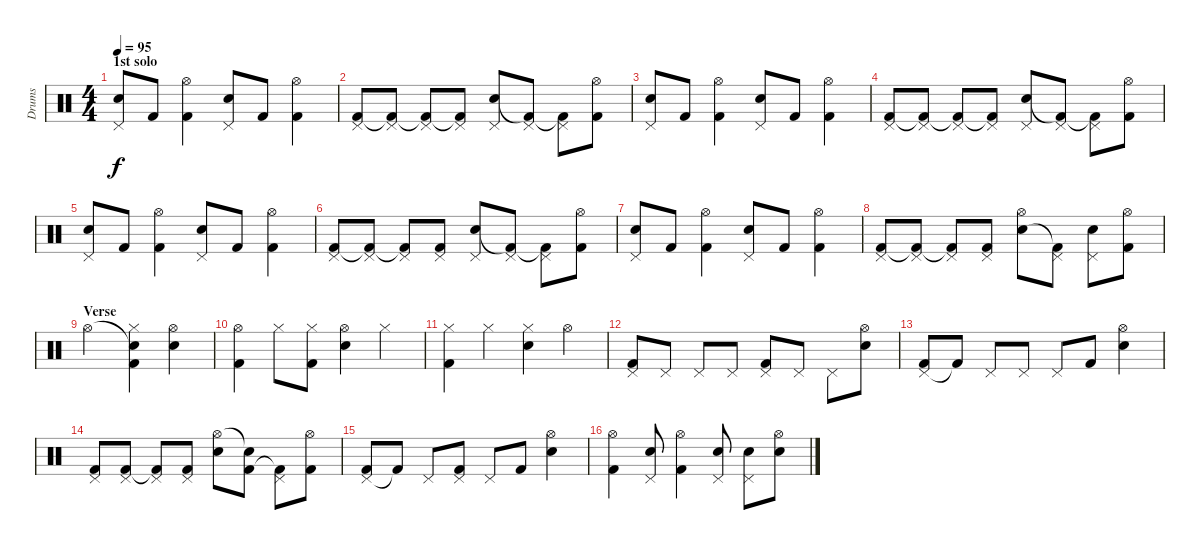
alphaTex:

\track ("Drums" "Drums") {instrument percussion}
\staff {score}
\articulation defaults
\ts (4 4)
\section ("" "1st solo")
\tempo 95
\clef neutral
\ks c
("Pedal Hi-Hat (hit)" "Snare (hit) 2").8{dy f} "Kick (hit) 2".8 ("Hi-Hat (open)" "Kick (hit) 2").4 ("Pedal Hi-Hat (hit)" "Snare (hit) 2").8 "Kick (hit) 2".8 ("Hi-Hat (open)" "Kick (hit) 2").4 |
("Pedal Hi-Hat (hit)" "Kick (hit) 2").8 ("Pedal Hi-Hat (hit)" "Kick (hit) 2"{t}).8 ("Pedal Hi-Hat (hit)" "Kick (hit) 2"{t}).8 ("Pedal Hi-Hat (hit)" "Kick (hit) 2"{t}).8 ("Pedal Hi-Hat (hit)" "Snare (hit) 2").8 ("Pedal Hi-Hat (hit)" "Kick (hit) 2"{t}).8 ("Pedal Hi-Hat (hit)" "Kick (hit) 2"{t}).8 ("Hi-Hat (open)" "Kick (hit) 2").8 |
("Pedal Hi-Hat (hit)" "Snare (hit) 2").8 "Kick (hit) 2".8 ("Hi-Hat (open)" "Kick (hit) 2").4 ("Pedal Hi-Hat (hit)" "Snare (hit) 2").8 "Kick (hit) 2".8 ("Hi-Hat (open)" "Kick (hit) 2").4 |
("Pedal Hi-Hat (hit)" "Kick (hit) 2").8 ("Pedal Hi-Hat (hit)" "Kick (hit) 2"{t}).8 ("Pedal Hi-Hat (hit)" "Kick (hit) 2"{t}).8 ("Pedal Hi-Hat (hit)" "Kick (hit) 2"{t}).8 ("Pedal Hi-Hat (hit)" "Snare (hit) 2").8 ("Pedal Hi-Hat (hit)" "Kick (hit) 2"{t}).8 ("Pedal Hi-Hat (hit)" "Kick (hit) 2"{t}).8 ("Hi-Hat (open)" "Kick (hit) 2").8 |
("Pedal Hi-Hat (hit)" "Snare (hit) 2").8 "Kick (hit) 2".8 ("Hi-Hat (open)" "Kick (hit) 2").4 ("Pedal Hi-Hat (hit)" "Snare (hit) 2").8 "Kick (hit) 2".8 ("Hi-Hat (open)" "Kick (hit) 2").4 |
("Pedal Hi-Hat (hit)" "Kick (hit) 2").8 ("Pedal Hi-Hat (hit)" "Kick (hit) 2"{t}).8 ("Pedal Hi-Hat (hit)" "Kick (hit) 2"{t}).8 ("Pedal Hi-Hat (hit)" "Kick (hit) 2").8 ("Pedal Hi-Hat (hit)" "Snare (hit) 2").8 ("Pedal Hi-Hat (hit)" "Kick (hit) 2"{t}).8 ("Pedal Hi-Hat (hit)" "Kick (hit) 2"{t}).8 ("Hi-Hat (open)" "Kick (hit) 2").8 |
("Pedal Hi-Hat (hit)" "Snare (hit) 2").8 "Kick (hit) 2".8 ("Hi-Hat (open)" "Kick (hit) 2").4 ("Pedal Hi-Hat (hit)" "Snare (hit) 2").8 "Kick (hit) 2".8 ("Hi-Hat (open)" "Kick (hit) 2").4 |
("Pedal Hi-Hat (hit)" "Kick (hit) 2").8 ("Pedal Hi-Hat (hit)" "Kick (hit) 2"{t}).8 ("Pedal Hi-Hat (hit)" "Kick (hit) 2"{t}).8 ("Pedal Hi-Hat (hit)" "Kick (hit) 2").8 ("Hi-Hat (open)" "Snare (hit) 2").8 ("Pedal Hi-Hat (hit)" "Kick (hit) 2"{t}).8 ("Pedal Hi-Hat (hit)" "Snare (hit) 2").8 ("Hi-Hat (open)" "Kick (hit) 2").8 |
\section ("" "Verse")
"Hi-Hat (open)".2 ("Snare (hit)"{t} "Hi-Hat (closed)" "Kick (hit) 2").4 ("Hi-Hat (open)" "Snare (hit) 2").4 |
("Hi-Hat (open)" "Kick (hit) 2").4 "Hi-Hat (closed)".8 ("Hi-Hat (closed)" "Kick (hit) 2").8 ("Hi-Hat (open)" "Snare (hit) 2").4 "Hi-Hat (closed)".4 |
("Hi-Hat (closed)" "Kick (hit) 2").4 "Hi-Hat (closed)".4 ("Hi-Hat (closed)" "Snare (hit) 2").4 "Hi-Hat (open)".4 |
("Pedal Hi-Hat (hit)" "Kick (hit) 2").8 "Pedal Hi-Hat (hit)".8 "Pedal Hi-Hat (hit)".8 "Pedal Hi-Hat (hit)".8 ("Pedal Hi-Hat (hit)" "Kick (hit) 2").8 "Pedal Hi-Hat (hit)".8 "Pedal Hi-Hat (hit)".8 ("Hi-Hat (open)" "Snare (hit) 2").8 |
("Pedal Hi-Hat (hit)" "Kick (hit) 2").8 "Kick (hit) 2"{t}.8 "Pedal Hi-Hat (hit)".8 "Pedal Hi-Hat (hit)".8 "Pedal Hi-Hat (hit)".8 "Kick (hit) 2".8 ("Hi-Hat (open)" "Snare (hit) 2").4 |
("Pedal Hi-Hat (hit)" "Kick (hit) 2").8 ("Pedal Hi-Hat (hit)" "Kick (hit) 2").8 ("Pedal Hi-Hat (hit)" "Kick (hit) 2"{t}).8 ("Pedal Hi-Hat (hit)" "Kick (hit) 2").8 ("Hi-Hat (open)" "Snare (hit) 2").8 ("Snare (hit)"{t} "Kick (hit) 2").8 ("Pedal Hi-Hat (hit)" "Kick (hit) 2"{t}).8 ("Hi-Hat (open)" "Kick (hit) 2").8 |
("Pedal Hi-Hat (hit)" "Kick (hit) 2").8 "Kick (hit) 2"{t}.8 "Pedal Hi-Hat (hit)".8 ("Pedal Hi-Hat (hit)" "Kick (hit) 2").8 "Pedal Hi-Hat (hit)".8 "Kick (hit) 2".8 ("Hi-Hat (open)" "Snare (hit) 2").4 |
("Hi-Hat (open)" "Kick (hit) 2").4 ("Pedal Hi-Hat (hit)" "Snare (hit) 2").8 ("Hi-Hat (open)" "Kick (hit) 2").4 ("Pedal Hi-Hat (hit)" "Snare (hit) 2").8 ("Pedal Hi-Hat (hit)" "Snare (hit) 2").8 ("Hi-Hat (open)" "Snare (hit) 2").8
